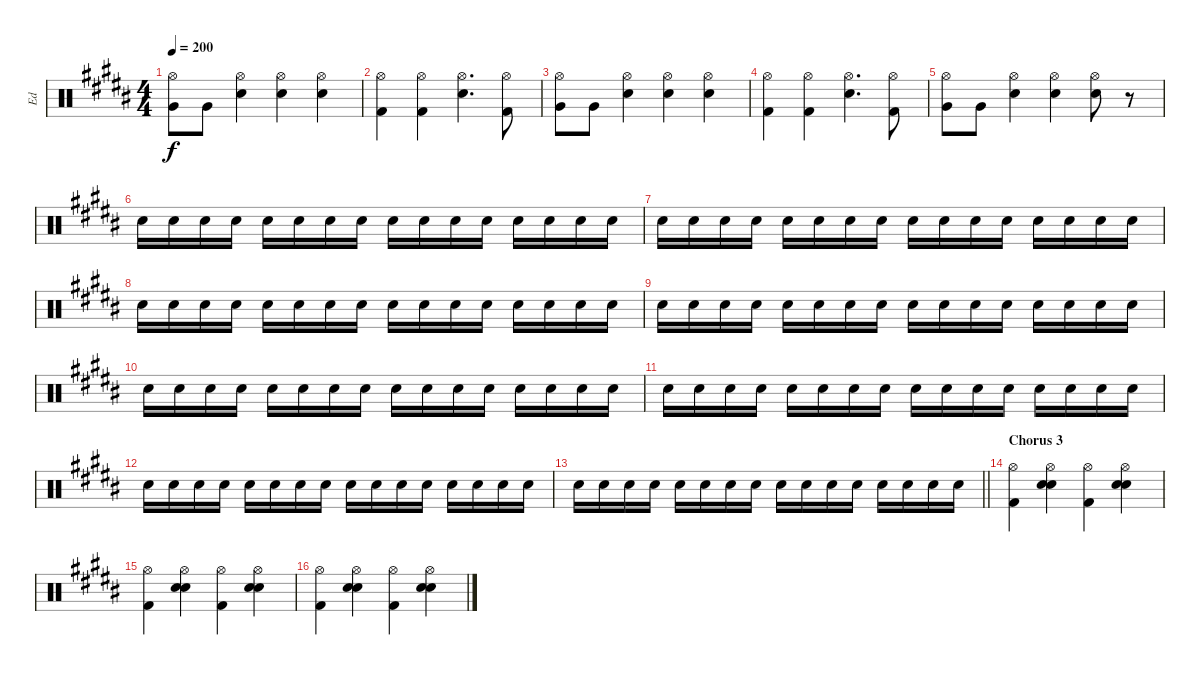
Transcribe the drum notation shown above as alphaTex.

\track ("Ed" "Ed") {instrument percussion bank 127}
\staff {score}
\articulation defaults
\ts (4 4)
\tempo 200
\clef neutral
\ks g#minor
("Hi-Hat (open)" "Very Low Tom (hit)").8{dy f} "Very Low Tom (hit)".8 ("Hi-Hat (open)" "Snare (hit) 2").4 ("Hi-Hat (open)" "Snare (hit) 2").4 ("Hi-Hat (open)" "Snare (hit) 2").4 |
("Hi-Hat (open)" "Kick (hit) 2").4 ("Hi-Hat (open)" "Kick (hit) 2").4 ("Hi-Hat (open)" "Snare (hit) 2").4{d} ("Hi-Hat (open)" "Kick (hit) 2").8 |
("Hi-Hat (open)" "Very Low Tom (hit)").8 "Very Low Tom (hit)".8 ("Hi-Hat (open)" "Snare (hit) 2").4 ("Hi-Hat (open)" "Snare (hit) 2").4 ("Hi-Hat (open)" "Snare (hit) 2").4 |
("Hi-Hat (open)" "Kick (hit) 2").4 ("Hi-Hat (open)" "Kick (hit) 2").4 ("Hi-Hat (open)" "Snare (hit) 2").4{d} ("Hi-Hat (open)" "Kick (hit) 2").8 |
("Hi-Hat (open)" "Very Low Tom (hit)").8 "Very Low Tom (hit)".8 ("Hi-Hat (open)" "Snare (hit) 2").4 ("Hi-Hat (open)" "Snare (hit) 2").4 ("Hi-Hat (open)" "Snare (hit) 2").8 r.8{volume 5} |
"Snare (hit) 2".16{volume 7} "Snare (hit) 2".16 "Snare (hit) 2".16 "Snare (hit) 2".16 "Snare (hit) 2".16 "Snare (hit) 2".16 "Snare (hit) 2".16 "Snare (hit) 2".16 "Snare (hit) 2".16 "Snare (hit) 2".16 "Snare (hit) 2".16 "Snare (hit) 2".16 "Snare (hit) 2".16 "Snare (hit) 2".16 "Snare (hit) 2".16 "Snare (hit) 2".16 |
"Snare (hit) 2".16 "Snare (hit) 2".16 "Snare (hit) 2".16 "Snare (hit) 2".16 "Snare (hit) 2".16 "Snare (hit) 2".16 "Snare (hit) 2".16 "Snare (hit) 2".16 "Snare (hit) 2".16 "Snare (hit) 2".16 "Snare (hit) 2".16 "Snare (hit) 2".16 "Snare (hit) 2".16 "Snare (hit) 2".16 "Snare (hit) 2".16 "Snare (hit) 2".16 |
"Snare (hit) 2".16 "Snare (hit) 2".16 "Snare (hit) 2".16 "Snare (hit) 2".16 "Snare (hit) 2".16 "Snare (hit) 2".16 "Snare (hit) 2".16 "Snare (hit) 2".16 "Snare (hit) 2".16 "Snare (hit) 2".16 "Snare (hit) 2".16 "Snare (hit) 2".16 "Snare (hit) 2".16 "Snare (hit) 2".16 "Snare (hit) 2".16 "Snare (hit) 2".16 |
"Snare (hit) 2".16 "Snare (hit) 2".16 "Snare (hit) 2".16 "Snare (hit) 2".16 "Snare (hit) 2".16 "Snare (hit) 2".16 "Snare (hit) 2".16 "Snare (hit) 2".16 "Snare (hit) 2".16 "Snare (hit) 2".16 "Snare (hit) 2".16 "Snare (hit) 2".16 "Snare (hit) 2".16 "Snare (hit) 2".16 "Snare (hit) 2".16 "Snare (hit) 2".16 |
"Snare (hit) 2".16{volume 11} "Snare (hit) 2".16 "Snare (hit) 2".16 "Snare (hit) 2".16 "Snare (hit) 2".16 "Snare (hit) 2".16 "Snare (hit) 2".16 "Snare (hit) 2".16 "Snare (hit) 2".16 "Snare (hit) 2".16 "Snare (hit) 2".16 "Snare (hit) 2".16 "Snare (hit) 2".16 "Snare (hit) 2".16 "Snare (hit) 2".16 "Snare (hit) 2".16 |
"Snare (hit) 2".16 "Snare (hit) 2".16 "Snare (hit) 2".16 "Snare (hit) 2".16 "Snare (hit) 2".16 "Snare (hit) 2".16 "Snare (hit) 2".16 "Snare (hit) 2".16 "Snare (hit) 2".16 "Snare (hit) 2".16 "Snare (hit) 2".16 "Snare (hit) 2".16 "Snare (hit) 2".16 "Snare (hit) 2".16 "Snare (hit) 2".16 "Snare (hit) 2".16 |
"Snare (hit) 2".16 "Snare (hit) 2".16 "Snare (hit) 2".16 "Snare (hit) 2".16 "Snare (hit) 2".16 "Snare (hit) 2".16 "Snare (hit) 2".16 "Snare (hit) 2".16 "Snare (hit) 2".16 "Snare (hit) 2".16 "Snare (hit) 2".16 "Snare (hit) 2".16 "Snare (hit) 2".16 "Snare (hit) 2".16 "Snare (hit) 2".16 "Snare (hit) 2".16 |
\barLineRight lightlight "Snare (hit) 2".16 "Snare (hit) 2".16 "Snare (hit) 2".16 "Snare (hit) 2".16 "Snare (hit) 2".16 "Snare (hit) 2".16 "Snare (hit) 2".16 "Snare (hit) 2".16 "Snare (hit) 2".16 "Snare (hit) 2".16 "Snare (hit) 2".16 "Snare (hit) 2".16 "Snare (hit) 2".16 "Snare (hit) 2".16 "Snare (hit) 2".16 "Snare (hit) 2".16
|
\section ("" "Chorus 3")
("Hi-Hat (open)" "Kick (hit) 2").4{volume 8} ("Hi-Hat (open)" "Electric Snare (hit)" "Electric Snare (hit)").4 ("Hi-Hat (open)" "Kick (hit) 2").4 ("Hi-Hat (open)" "Electric Snare (hit)" "Electric Snare (hit)").4 |
("Hi-Hat (open)" "Kick (hit) 2").4 ("Hi-Hat (open)" "Electric Snare (hit)" "Electric Snare (hit)").4 ("Hi-Hat (open)" "Kick (hit) 2").4 ("Hi-Hat (open)" "Electric Snare (hit)" "Electric Snare (hit)").4 |
("Hi-Hat (open)" "Kick (hit) 2").4 ("Hi-Hat (open)" "Electric Snare (hit)" "Electric Snare (hit)").4 ("Hi-Hat (open)" "Kick (hit) 2").4 ("Hi-Hat (open)" "Electric Snare (hit)" "Electric Snare (hit)").4
